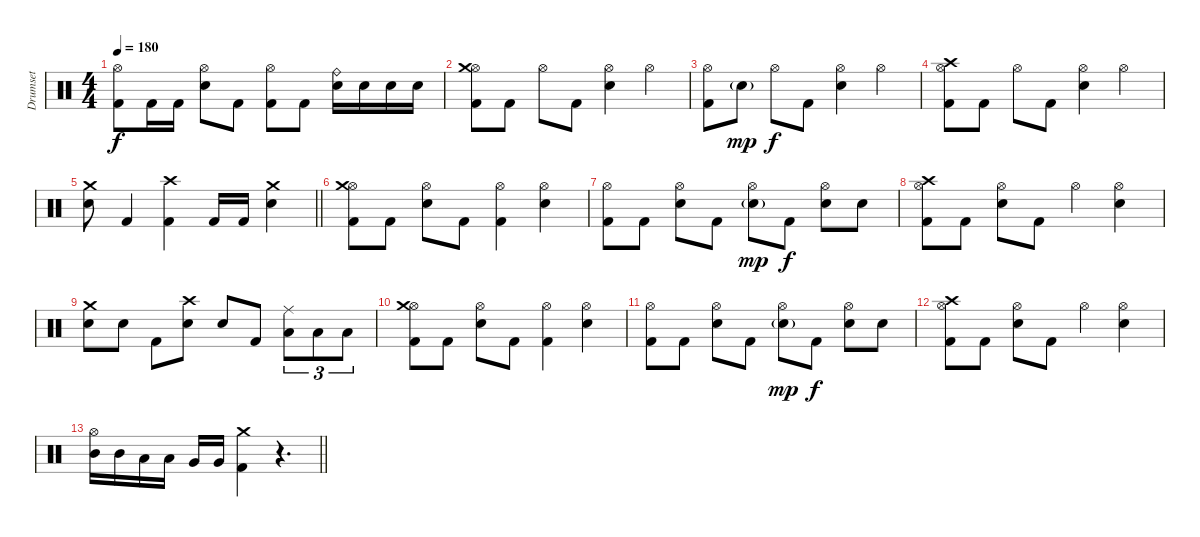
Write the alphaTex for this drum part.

\track ("Drumset" "Drumset") {instrument percussion}
\staff {score}
\articulation defaults
\ts (4 4)
\tempo 180
\clef neutral
\ks c
("Hi-Hat (open)" "Kick (hit) 2").8{dy f} "Kick (hit) 2".16 "Kick (hit) 2".16 ("Hi-Hat (open)" "Snare (hit) 2").8 "Kick (hit) 2".8 ("Hi-Hat (open)" "Kick (hit) 2").8 "Kick (hit) 2".8 ("Ride (bell)" "Snare (hit) 2").16 "Snare (hit) 2".16 "Snare (hit) 2".16 "Snare (hit) 2".16 |
("Hi-Hat (open)" "Crash medium (hit)" "Kick (hit) 2").8 "Kick (hit) 2".8 "Hi-Hat (open)".8 "Kick (hit) 2".8 ("Hi-Hat (open)" "Snare (hit) 2").4 "Hi-Hat (open)".4 |
("Hi-Hat (open)" "Kick (hit) 2").8 "Snare (hit) 2"{g}.8{dy mp} "Hi-Hat (open)".8{dy f} "Kick (hit) 2".8 ("Hi-Hat (open)" "Snare (hit) 2").4 "Hi-Hat (open)".4 |
("Hi-Hat (open)" "Crash high (hit)" "Kick (hit) 2").8 "Kick (hit) 2".8 "Hi-Hat (open)".8 "Kick (hit) 2".8 ("Hi-Hat (open)" "Snare (hit) 2").4 "Hi-Hat (open)".4 |
\barLineRight lightlight
("Crash medium (hit)" "Snare (hit) 2").8 "Kick (hit) 2".4 ("Crash high (hit)" "Kick (hit) 2").4 "Kick (hit) 2".16 "Kick (hit) 2".16 ("Crash medium (hit)" "Snare (hit) 2").4 |
("Hi-Hat (open)" "Crash medium (hit)" "Kick (hit) 2").8 "Kick (hit) 2".8 ("Hi-Hat (open)" "Snare (hit) 2").8 "Kick (hit) 2".8 ("Hi-Hat (open)" "Kick (hit) 2").4 ("Hi-Hat (open)" "Snare (hit) 2").4 |
("Hi-Hat (open)" "Kick (hit) 2").8 "Kick (hit) 2".8 ("Hi-Hat (open)" "Snare (hit) 2").8 "Kick (hit) 2".8 ("Hi-Hat (open)" "Snare (hit) 2"{g}).8{dy mp} "Kick (hit) 2".8{dy f} ("Hi-Hat (open)" "Snare (hit) 2").8 "Snare (hit) 2".8 |
("Hi-Hat (open)" "Crash high (hit)" "Kick (hit) 2").8 "Kick (hit) 2".8 ("Hi-Hat (open)" "Snare (hit) 2").8 "Kick (hit) 2".8 "Hi-Hat (open)".4 ("Hi-Hat (open)" "Snare (hit) 2").4 |
("Crash medium (hit)" "Snare (hit) 2").8 "Snare (hit) 2".8 "Kick (hit) 2".8 ("Crash high (hit)" "Snare (hit) 2").8 "Snare (hit) 2".8 "Kick (hit) 2".8 ("Ride (middle)" "Low Tom (hit)").8{tu (3 2)} "Low Tom (hit)".8{tu (3 2)} "Low Tom (hit)".8{tu (3 2)} |
("Hi-Hat (open)" "Crash medium (hit)" "Kick (hit) 2").8 "Kick (hit) 2".8 ("Hi-Hat (open)" "Snare (hit) 2").8 "Kick (hit) 2".8 ("Hi-Hat (open)" "Kick (hit) 2").4 ("Hi-Hat (open)" "Snare (hit) 2").4 |
("Hi-Hat (open)" "Kick (hit) 2").8 "Kick (hit) 2".8 ("Hi-Hat (open)" "Snare (hit) 2").8 "Kick (hit) 2".8 ("Hi-Hat (open)" "Snare (hit) 2"{g}).8{dy mp} "Kick (hit) 2".8{dy f} ("Hi-Hat (open)" "Snare (hit) 2").8 "Snare (hit) 2".8 |
("Hi-Hat (open)" "Crash high (hit)" "Kick (hit) 2").8 "Kick (hit) 2".8 ("Hi-Hat (open)" "Snare (hit) 2").8 "Kick (hit) 2".8 "Hi-Hat (open)".4 ("Hi-Hat (open)" "Snare (hit) 2").4 |
\barLineRight lightlight
("Hi-Hat (open)" "Mid Tom (hit)").16 "Mid Tom (hit)".16 "Low Tom (hit)".16 "Low Tom (hit)".16 "Very Low Tom (hit)".16 "Very Low Tom (hit)".16 ("Crash medium (hit)" "Kick (hit) 2").4 r.4{d}
